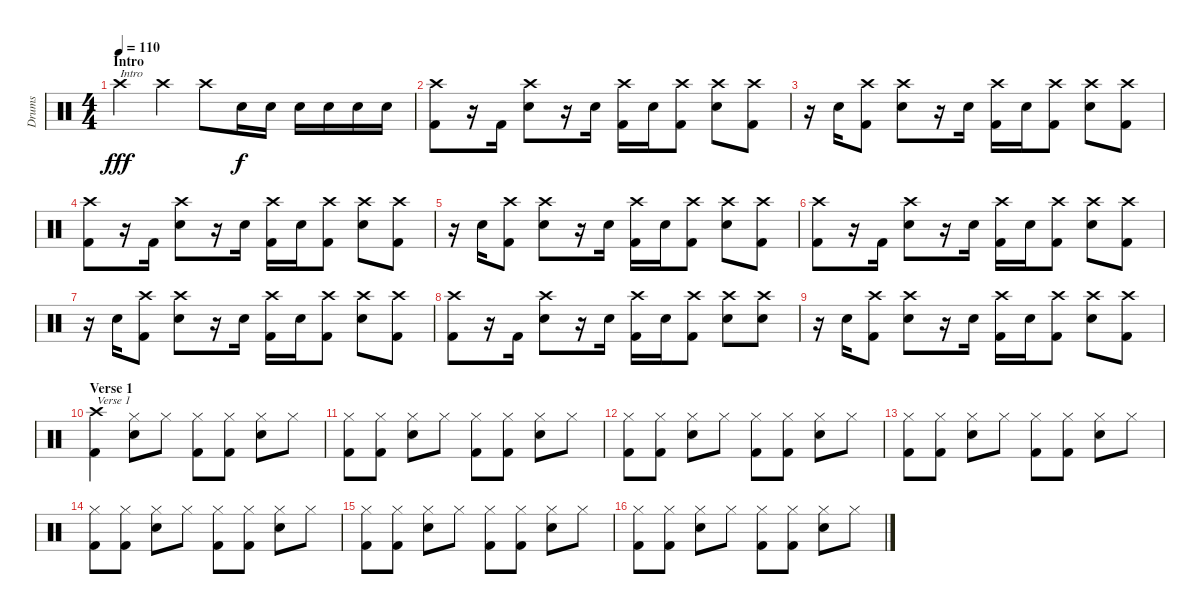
\track ("Drums" "Drums") {instrument percussion}
\staff {score}
\articulation defaults
\ts (4 4)
\section ("" "Intro")
\tempo 110
\clef neutral
\ks c "Crash high (hit)".4{txt "Intro" dy fff} "Crash high (hit)".4 "Crash high (hit)".8 "Electric Snare (hit)".16{dy f} "Electric Snare (hit)".16 "Electric Snare (hit)".16 "Electric Snare (hit)".16 "Electric Snare (hit)".16 "Electric Snare (hit)".16
|
("Crash high (hit)" "Kick (hit) 2").8 r.16 "Kick (hit) 2".16 ("Crash high (hit)" "Electric Snare (hit)").8 r.16 "Electric Snare (hit)".16 ("Crash high (hit)" "Kick (hit) 2").16 "Electric Snare (hit)".16 ("Crash high (hit)" "Kick (hit) 2").8 ("Crash high (hit)" "Electric Snare (hit)").8 ("Crash high (hit)" "Kick (hit) 2").8 |
r.16 "Electric Snare (hit)".16 ("Crash high (hit)" "Kick (hit) 2").8 ("Crash high (hit)" "Electric Snare (hit)").8 r.16 "Electric Snare (hit)".16 ("Crash high (hit)" "Kick (hit) 2").16 "Electric Snare (hit)".16 ("Crash high (hit)" "Kick (hit) 2").8 ("Crash high (hit)" "Electric Snare (hit)").8 ("Crash high (hit)" "Kick (hit) 2").8 |
("Crash high (hit)" "Kick (hit) 2").8 r.16 "Kick (hit) 2".16 ("Crash high (hit)" "Electric Snare (hit)").8 r.16 "Electric Snare (hit)".16 ("Crash high (hit)" "Kick (hit) 2").16 "Electric Snare (hit)".16 ("Crash high (hit)" "Kick (hit) 2").8 ("Crash high (hit)" "Electric Snare (hit)").8 ("Crash high (hit)" "Kick (hit) 2").8 |
r.16 "Electric Snare (hit)".16 ("Crash high (hit)" "Kick (hit) 2").8 ("Crash high (hit)" "Electric Snare (hit)").8 r.16 "Electric Snare (hit)".16 ("Crash high (hit)" "Kick (hit) 2").16 "Electric Snare (hit)".16 ("Crash high (hit)" "Kick (hit) 2").8 ("Crash high (hit)" "Electric Snare (hit)").8 ("Crash high (hit)" "Kick (hit) 2").8 |
("Crash high (hit)" "Kick (hit) 2").8 r.16 "Kick (hit) 2".16 ("Crash high (hit)" "Electric Snare (hit)").8 r.16 "Electric Snare (hit)".16 ("Crash high (hit)" "Kick (hit) 2").16 "Electric Snare (hit)".16 ("Crash high (hit)" "Kick (hit) 2").8 ("Crash high (hit)" "Electric Snare (hit)").8 ("Crash high (hit)" "Kick (hit) 2").8 |
r.16 "Electric Snare (hit)".16 ("Crash high (hit)" "Kick (hit) 2").8 ("Crash high (hit)" "Electric Snare (hit)").8 r.16 "Electric Snare (hit)".16 ("Crash high (hit)" "Kick (hit) 2").16 "Electric Snare (hit)".16 ("Crash high (hit)" "Kick (hit) 2").8 ("Crash high (hit)" "Electric Snare (hit)").8 ("Crash high (hit)" "Kick (hit) 2").8 |
("Crash high (hit)" "Kick (hit) 2").8 r.16 "Kick (hit) 2".16 ("Crash high (hit)" "Electric Snare (hit)").8 r.16 "Electric Snare (hit)".16 ("Crash high (hit)" "Kick (hit) 2").16 "Electric Snare (hit)".16 ("Crash high (hit)" "Kick (hit) 2").8 ("Crash high (hit)" "Electric Snare (hit)").8 ("Crash high (hit)" "Electric Snare (hit)").8 |
r.16 "Electric Snare (hit)".16 ("Crash high (hit)" "Kick (hit) 2").8 ("Crash high (hit)" "Electric Snare (hit)").8 r.16 "Electric Snare (hit)".16 ("Crash high (hit)" "Kick (hit) 2").16 "Electric Snare (hit)".16 ("Crash high (hit)" "Kick (hit) 2").8 ("Crash high (hit)" "Electric Snare (hit)").8 ("Crash high (hit)" "Kick (hit) 2").8 |
\section ("" "Verse 1")
("Crash high (hit)" "Kick (hit) 2").4{txt "Verse 1"} ("Hi-Hat (closed)" "Electric Snare (hit)").8 "Hi-Hat (closed)".8 ("Hi-Hat (closed)" "Kick (hit) 2").8 ("Hi-Hat (closed)" "Kick (hit) 2").8 ("Hi-Hat (closed)" "Electric Snare (hit)").8 "Hi-Hat (closed)".8 |
("Hi-Hat (closed)" "Kick (hit) 2").8 ("Hi-Hat (closed)" "Kick (hit) 2").8 ("Hi-Hat (closed)" "Electric Snare (hit)").8 "Hi-Hat (closed)".8 ("Hi-Hat (closed)" "Kick (hit) 2").8 ("Hi-Hat (closed)" "Kick (hit) 2").8 ("Hi-Hat (closed)" "Electric Snare (hit)").8 "Hi-Hat (closed)".8 |
("Hi-Hat (closed)" "Kick (hit) 2").8 ("Hi-Hat (closed)" "Kick (hit) 2").8 ("Hi-Hat (closed)" "Electric Snare (hit)").8 "Hi-Hat (closed)".8 ("Hi-Hat (closed)" "Kick (hit) 2").8 ("Hi-Hat (closed)" "Kick (hit) 2").8 ("Hi-Hat (closed)" "Electric Snare (hit)").8 "Hi-Hat (closed)".8 |
("Hi-Hat (closed)" "Kick (hit) 2").8 ("Hi-Hat (closed)" "Kick (hit) 2").8 ("Hi-Hat (closed)" "Electric Snare (hit)").8 "Hi-Hat (closed)".8 ("Hi-Hat (closed)" "Kick (hit) 2").8 ("Hi-Hat (closed)" "Kick (hit) 2").8 ("Hi-Hat (closed)" "Electric Snare (hit)").8 "Hi-Hat (closed)".8 |
("Hi-Hat (closed)" "Kick (hit) 2").8 ("Hi-Hat (closed)" "Kick (hit) 2").8 ("Hi-Hat (closed)" "Electric Snare (hit)").8 "Hi-Hat (closed)".8 ("Hi-Hat (closed)" "Kick (hit) 2").8 ("Hi-Hat (closed)" "Kick (hit) 2").8 ("Hi-Hat (closed)" "Electric Snare (hit)").8 "Hi-Hat (closed)".8 |
("Hi-Hat (closed)" "Kick (hit) 2").8 ("Hi-Hat (closed)" "Kick (hit) 2").8 ("Hi-Hat (closed)" "Electric Snare (hit)").8 "Hi-Hat (closed)".8 ("Hi-Hat (closed)" "Kick (hit) 2").8 ("Hi-Hat (closed)" "Kick (hit) 2").8 ("Hi-Hat (closed)" "Electric Snare (hit)").8 "Hi-Hat (closed)".8 |
("Hi-Hat (closed)" "Kick (hit) 2").8 ("Hi-Hat (closed)" "Kick (hit) 2").8 ("Hi-Hat (closed)" "Electric Snare (hit)").8 "Hi-Hat (closed)".8 ("Hi-Hat (closed)" "Kick (hit) 2").8 ("Hi-Hat (closed)" "Kick (hit) 2").8 ("Hi-Hat (closed)" "Electric Snare (hit)").8 "Hi-Hat (closed)".8
